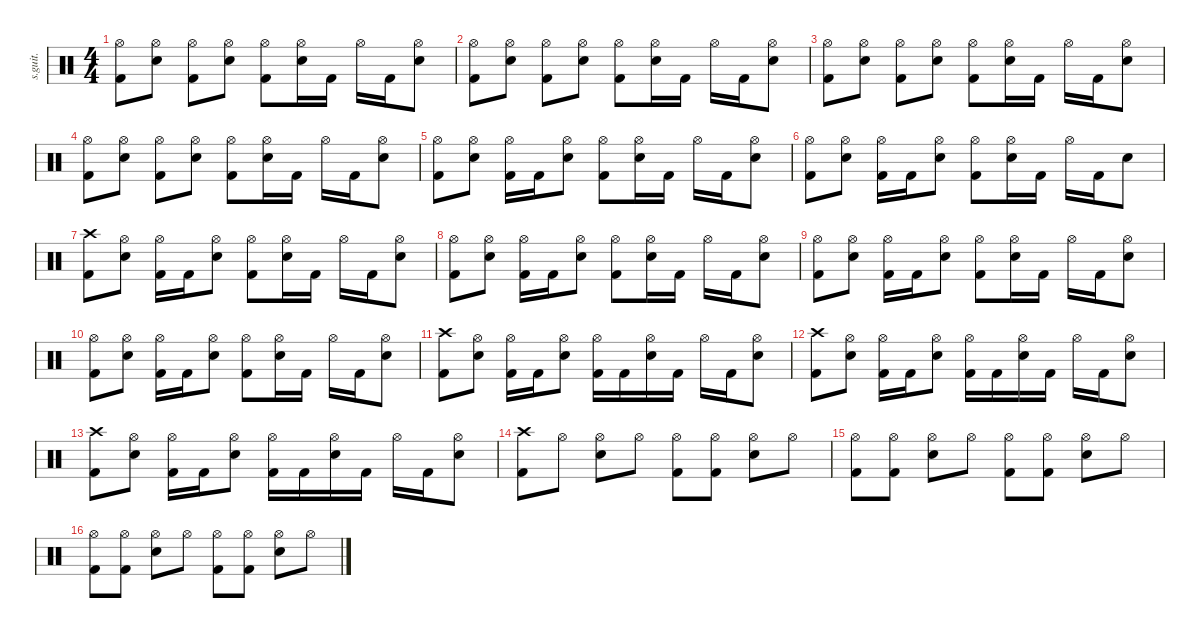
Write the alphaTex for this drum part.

\defaultSystemsLayout 4
\hideDynamics
\bracketExtendMode nobrackets
\track ("" "s.guit.") {instrument percussion}
\staff {score}
\articulation defaults
\ts (4 4)
\tempo (150 hide)
\clef neutral
\ks c
("Hi-Hat (open)" "Kick (hit) 2").8{dy mf} ("Hi-Hat (open)" "Snare (hit) 2").8 ("Hi-Hat (open)" "Kick (hit) 2").8 ("Hi-Hat (open)" "Snare (hit) 2").8 ("Hi-Hat (open)" "Kick (hit) 2").8 ("Hi-Hat (open)" "Snare (hit) 2").16 "Kick (hit) 2".16 "Hi-Hat (open)".16 "Kick (hit) 2".16 ("Hi-Hat (open)" "Snare (hit) 2").8 |
("Hi-Hat (open)" "Kick (hit) 2").8 ("Hi-Hat (open)" "Snare (hit) 2").8 ("Hi-Hat (open)" "Kick (hit) 2").8 ("Hi-Hat (open)" "Snare (hit) 2").8 ("Hi-Hat (open)" "Kick (hit) 2").8 ("Hi-Hat (open)" "Snare (hit) 2").16 "Kick (hit) 2".16 "Hi-Hat (open)".16 "Kick (hit) 2".16 ("Hi-Hat (open)" "Snare (hit) 2").8 |
("Hi-Hat (open)" "Kick (hit) 2").8 ("Hi-Hat (open)" "Snare (hit) 2").8 ("Hi-Hat (open)" "Kick (hit) 2").8 ("Hi-Hat (open)" "Snare (hit) 2").8 ("Hi-Hat (open)" "Kick (hit) 2").8 ("Hi-Hat (open)" "Snare (hit) 2").16 "Kick (hit) 2".16 "Hi-Hat (open)".16 "Kick (hit) 2".16 ("Hi-Hat (open)" "Snare (hit) 2").8 |
("Hi-Hat (open)" "Kick (hit) 2").8 ("Hi-Hat (open)" "Snare (hit) 2").8 ("Hi-Hat (open)" "Kick (hit) 2").8 ("Hi-Hat (open)" "Snare (hit) 2").8 ("Hi-Hat (open)" "Kick (hit) 2").8 ("Hi-Hat (open)" "Snare (hit) 2").16 "Kick (hit) 2".16 "Hi-Hat (open)".16 "Kick (hit) 2".16 ("Hi-Hat (open)" "Snare (hit) 2").8 |
("Hi-Hat (open)" "Kick (hit) 2").8 ("Hi-Hat (open)" "Snare (hit) 2").8 ("Hi-Hat (open)" "Kick (hit) 2").16 "Kick (hit) 2".16 ("Hi-Hat (open)" "Snare (hit) 2").8 ("Hi-Hat (open)" "Kick (hit) 2").8 ("Hi-Hat (open)" "Snare (hit) 2").16 "Kick (hit) 2".16 "Hi-Hat (open)".16 "Kick (hit) 2".16 ("Hi-Hat (open)" "Snare (hit) 2").8 |
("Hi-Hat (open)" "Kick (hit) 2").8 ("Hi-Hat (open)" "Snare (hit) 2").8 ("Hi-Hat (open)" "Kick (hit) 2").16 "Kick (hit) 2".16 ("Hi-Hat (open)" "Snare (hit) 2").8 ("Hi-Hat (open)" "Kick (hit) 2").8 ("Hi-Hat (open)" "Snare (hit) 2").16 "Kick (hit) 2".16 "Hi-Hat (open)".16 "Kick (hit) 2".16 "Snare (hit) 2".8 |
("Crash high (hit)" "Kick (hit) 2").8 ("Hi-Hat (open)" "Snare (hit) 2").8 ("Hi-Hat (open)" "Kick (hit) 2").16 "Kick (hit) 2".16 ("Hi-Hat (open)" "Snare (hit) 2").8 ("Hi-Hat (open)" "Kick (hit) 2").8 ("Hi-Hat (open)" "Snare (hit) 2").16 "Kick (hit) 2".16 "Hi-Hat (open)".16 "Kick (hit) 2".16 ("Hi-Hat (open)" "Snare (hit) 2").8 |
("Hi-Hat (open)" "Kick (hit) 2").8 ("Hi-Hat (open)" "Snare (hit) 2").8 ("Hi-Hat (open)" "Kick (hit) 2").16 "Kick (hit) 2".16 ("Hi-Hat (open)" "Snare (hit) 2").8 ("Hi-Hat (open)" "Kick (hit) 2").8 ("Hi-Hat (open)" "Snare (hit) 2").16 "Kick (hit) 2".16 "Hi-Hat (open)".16 "Kick (hit) 2".16 ("Hi-Hat (open)" "Snare (hit) 2").8 |
("Hi-Hat (open)" "Kick (hit) 2").8 ("Hi-Hat (open)" "Snare (hit) 2").8 ("Hi-Hat (open)" "Kick (hit) 2").16 "Kick (hit) 2".16 ("Hi-Hat (open)" "Snare (hit) 2").8 ("Hi-Hat (open)" "Kick (hit) 2").8 ("Hi-Hat (open)" "Snare (hit) 2").16 "Kick (hit) 2".16 "Hi-Hat (open)".16 "Kick (hit) 2".16 ("Hi-Hat (open)" "Snare (hit) 2").8 |
("Hi-Hat (open)" "Kick (hit) 2").8 ("Hi-Hat (open)" "Snare (hit) 2").8 ("Hi-Hat (open)" "Kick (hit) 2").16 "Kick (hit) 2".16 ("Hi-Hat (open)" "Snare (hit) 2").8 ("Hi-Hat (open)" "Kick (hit) 2").8 ("Hi-Hat (open)" "Snare (hit) 2").16 "Kick (hit) 2".16 "Hi-Hat (open)".16 "Kick (hit) 2".16 ("Hi-Hat (open)" "Snare (hit) 2").8 |
("Crash high (hit)" "Kick (hit) 2").8 ("Hi-Hat (open)" "Snare (hit) 2").8 ("Hi-Hat (open)" "Kick (hit) 2").16 "Kick (hit) 2".16 ("Hi-Hat (open)" "Snare (hit) 2").8 ("Hi-Hat (open)" "Kick (hit) 2").16 "Kick (hit) 2".16 ("Hi-Hat (open)" "Snare (hit) 2").16 "Kick (hit) 2".16 "Hi-Hat (open)".16 "Kick (hit) 2".16 ("Hi-Hat (open)" "Snare (hit) 2").8 |
("Crash high (hit)" "Kick (hit) 2").8 ("Hi-Hat (open)" "Snare (hit) 2").8 ("Hi-Hat (open)" "Kick (hit) 2").16 "Kick (hit) 2".16 ("Hi-Hat (open)" "Snare (hit) 2").8 ("Hi-Hat (open)" "Kick (hit) 2").16 "Kick (hit) 2".16 ("Hi-Hat (open)" "Snare (hit) 2").16 "Kick (hit) 2".16 "Hi-Hat (open)".16 "Kick (hit) 2".16 ("Hi-Hat (open)" "Snare (hit) 2").8 |
("Crash high (hit)" "Kick (hit) 2").8 ("Hi-Hat (open)" "Snare (hit) 2").8 ("Hi-Hat (open)" "Kick (hit) 2").16 "Kick (hit) 2".16 ("Hi-Hat (open)" "Snare (hit) 2").8 ("Hi-Hat (open)" "Kick (hit) 2").16 "Kick (hit) 2".16 ("Hi-Hat (open)" "Snare (hit) 2").16 "Kick (hit) 2".16 "Hi-Hat (open)".16 "Kick (hit) 2".16 ("Hi-Hat (open)" "Snare (hit) 2").8 |
\tempo (110 hide)
("Crash high (hit)" "Kick (hit) 2").8 "Hi-Hat (open)".8 ("Hi-Hat (open)" "Snare (hit) 2").8 "Hi-Hat (open)".8 ("Hi-Hat (open)" "Kick (hit) 2").8 ("Hi-Hat (open)" "Kick (hit) 2").8 ("Hi-Hat (open)" "Snare (hit) 2").8 "Hi-Hat (open)".8 |
("Hi-Hat (open)" "Kick (hit) 2").8 ("Hi-Hat (open)" "Kick (hit) 2").8 ("Hi-Hat (open)" "Snare (hit) 2").8 "Hi-Hat (open)".8 ("Hi-Hat (open)" "Kick (hit) 2").8 ("Hi-Hat (open)" "Kick (hit) 2").8 ("Hi-Hat (open)" "Snare (hit) 2").8 "Hi-Hat (open)".8 |
("Hi-Hat (open)" "Kick (hit) 2").8 ("Hi-Hat (open)" "Kick (hit) 2").8 ("Hi-Hat (open)" "Snare (hit) 2").8 "Hi-Hat (open)".8 ("Hi-Hat (open)" "Kick (hit) 2").8 ("Hi-Hat (open)" "Kick (hit) 2").8 ("Hi-Hat (open)" "Snare (hit) 2").8 "Hi-Hat (open)".8
